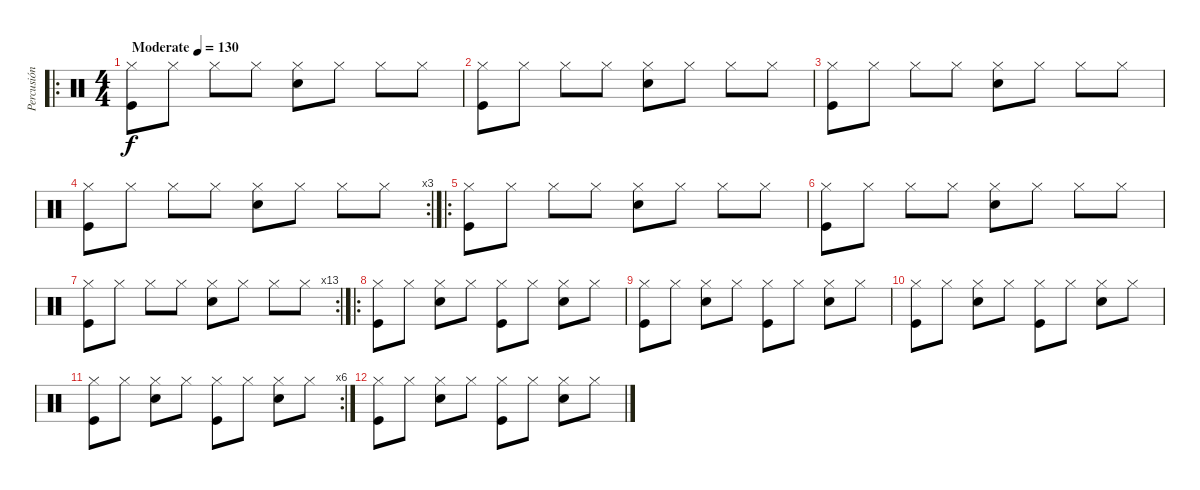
\track ("Percusión" "Percusión") {instrument percussion}
\staff {score}
\articulation defaults
\ro
\ts (4 4)
\tempo (130 "Moderate")
\clef neutral
\ks c
("Hi-Hat (closed)" "Kick (hit)").8{dy f} "Hi-Hat (closed)".8 "Hi-Hat (closed)".8 "Hi-Hat (closed)".8 ("Hi-Hat (closed)" "Snare (hit) 2").8 "Hi-Hat (closed)".8 "Hi-Hat (closed)".8 "Hi-Hat (closed)".8 |
("Hi-Hat (closed)" "Kick (hit)").8 "Hi-Hat (closed)".8 "Hi-Hat (closed)".8 "Hi-Hat (closed)".8 ("Hi-Hat (closed)" "Snare (hit) 2").8 "Hi-Hat (closed)".8 "Hi-Hat (closed)".8 "Hi-Hat (closed)".8 |
("Hi-Hat (closed)" "Kick (hit)").8 "Hi-Hat (closed)".8 "Hi-Hat (closed)".8 "Hi-Hat (closed)".8 ("Hi-Hat (closed)" "Snare (hit) 2").8 "Hi-Hat (closed)".8 "Hi-Hat (closed)".8 "Hi-Hat (closed)".8 |
\rc 3
("Hi-Hat (closed)" "Kick (hit)").8 "Hi-Hat (closed)".8 "Hi-Hat (closed)".8 "Hi-Hat (closed)".8 ("Hi-Hat (closed)" "Snare (hit) 2").8 "Hi-Hat (closed)".8 "Hi-Hat (closed)".8 "Hi-Hat (closed)".8 |
\ro
("Hi-Hat (closed)" "Kick (hit)").8 "Hi-Hat (closed)".8 "Hi-Hat (closed)".8 "Hi-Hat (closed)".8 ("Hi-Hat (closed)" "Snare (hit) 2").8 "Hi-Hat (closed)".8 "Hi-Hat (closed)".8 "Hi-Hat (closed)".8 |
("Hi-Hat (closed)" "Kick (hit)").8 "Hi-Hat (closed)".8 "Hi-Hat (closed)".8 "Hi-Hat (closed)".8 ("Hi-Hat (closed)" "Snare (hit) 2").8 "Hi-Hat (closed)".8 "Hi-Hat (closed)".8 "Hi-Hat (closed)".8 |
\rc 13
("Hi-Hat (closed)" "Kick (hit)").8 "Hi-Hat (closed)".8 "Hi-Hat (closed)".8 "Hi-Hat (closed)".8 ("Hi-Hat (closed)" "Snare (hit) 2").8 "Hi-Hat (closed)".8 "Hi-Hat (closed)".8 "Hi-Hat (closed)".8 |
\ro
("Hi-Hat (closed)" "Kick (hit)").8 "Hi-Hat (closed)".8 ("Hi-Hat (closed)" "Snare (hit) 2").8 "Hi-Hat (closed)".8 ("Hi-Hat (closed)" "Kick (hit)").8 "Hi-Hat (closed)".8 ("Hi-Hat (closed)" "Snare (hit) 2").8 "Hi-Hat (closed)".8 |
("Hi-Hat (closed)" "Kick (hit)").8 "Hi-Hat (closed)".8 ("Hi-Hat (closed)" "Snare (hit) 2").8 "Hi-Hat (closed)".8 ("Hi-Hat (closed)" "Kick (hit)").8 "Hi-Hat (closed)".8 ("Hi-Hat (closed)" "Snare (hit) 2").8 "Hi-Hat (closed)".8 |
("Hi-Hat (closed)" "Kick (hit)").8 "Hi-Hat (closed)".8 ("Hi-Hat (closed)" "Snare (hit) 2").8 "Hi-Hat (closed)".8 ("Hi-Hat (closed)" "Kick (hit)").8 "Hi-Hat (closed)".8 ("Hi-Hat (closed)" "Snare (hit) 2").8 "Hi-Hat (closed)".8 |
\rc 6
("Hi-Hat (closed)" "Kick (hit)").8 "Hi-Hat (closed)".8 ("Hi-Hat (closed)" "Snare (hit) 2").8 "Hi-Hat (closed)".8 ("Hi-Hat (closed)" "Kick (hit)").8 "Hi-Hat (closed)".8 ("Hi-Hat (closed)" "Snare (hit) 2").8 "Hi-Hat (closed)".8 |
("Hi-Hat (closed)" "Kick (hit)").8 "Hi-Hat (closed)".8 ("Hi-Hat (closed)" "Snare (hit) 2").8 "Hi-Hat (closed)".8 ("Hi-Hat (closed)" "Kick (hit)").8 "Hi-Hat (closed)".8 ("Hi-Hat (closed)" "Snare (hit) 2").8 "Hi-Hat (closed)".8
